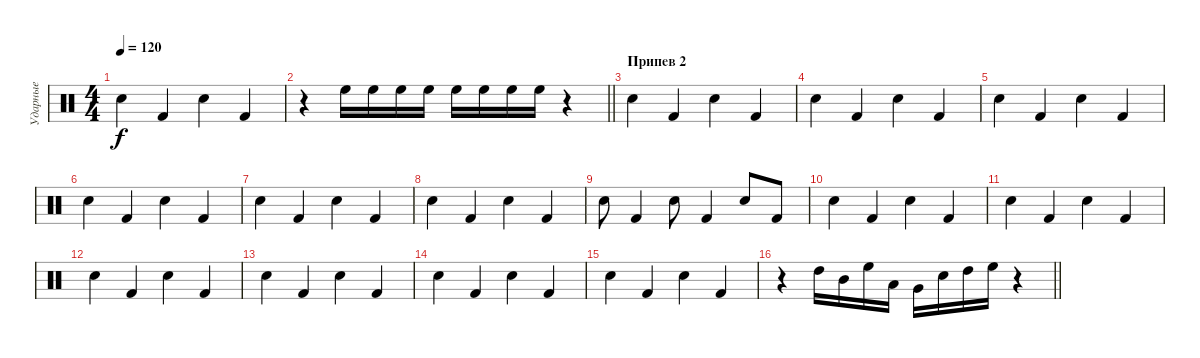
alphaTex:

\track ("Ударные" "Ударные") {instrument percussion}
\staff {score}
\articulation defaults
\ts (4 4)
\tempo 120
\clef neutral
\ks c "Electric Snare (hit)".4{dy f} "Kick (hit) 2".4 "Electric Snare (hit)".4 "Kick (hit) 2".4
|
\barLineRight lightlight
r.4 "High Floor Tom (hit)".16 "High Floor Tom (hit)".16 "High Floor Tom (hit)".16 "High Floor Tom (hit)".16 "High Floor Tom (hit)".16 "High Floor Tom (hit)".16 "High Floor Tom (hit)".16 "High Floor Tom (hit)".16 r.4 |
\section ("" "Припев 2")
"Electric Snare (hit)".4 "Kick (hit) 2".4 "Electric Snare (hit)".4 "Kick (hit) 2".4 |
"Electric Snare (hit)".4 "Kick (hit) 2".4 "Electric Snare (hit)".4 "Kick (hit) 2".4 |
"Electric Snare (hit)".4 "Kick (hit) 2".4 "Electric Snare (hit)".4 "Kick (hit) 2".4 |
"Electric Snare (hit)".4 "Kick (hit) 2".4 "Electric Snare (hit)".4 "Kick (hit) 2".4 |
"Electric Snare (hit)".4 "Kick (hit) 2".4 "Electric Snare (hit)".4 "Kick (hit) 2".4 |
"Electric Snare (hit)".4 "Kick (hit) 2".4 "Electric Snare (hit)".4 "Kick (hit) 2".4 |
"Electric Snare (hit)".8 "Kick (hit) 2".4 "Electric Snare (hit)".8 "Kick (hit) 2".4 "Electric Snare (hit)".8 "Kick (hit) 2".8 |
"Electric Snare (hit)".4 "Kick (hit) 2".4 "Electric Snare (hit)".4 "Kick (hit) 2".4 |
"Electric Snare (hit)".4 "Kick (hit) 2".4 "Electric Snare (hit)".4 "Kick (hit) 2".4 |
"Electric Snare (hit)".4 "Kick (hit) 2".4 "Electric Snare (hit)".4 "Kick (hit) 2".4 |
"Electric Snare (hit)".4 "Kick (hit) 2".4 "Electric Snare (hit)".4 "Kick (hit) 2".4 |
"Electric Snare (hit)".4 "Kick (hit) 2".4 "Electric Snare (hit)".4 "Kick (hit) 2".4 |
"Electric Snare (hit)".4 "Kick (hit) 2".4 "Electric Snare (hit)".4 "Kick (hit) 2".4 |
\barLineRight lightlight
r.4 "High Tom (hit)".16 "Mid Tom (hit)".16 "High Floor Tom (hit)".16 "Low Floor Tom (hit)".16 "Very Low Tom (hit)".16 "Electric Snare (hit)".16 "High Tom (hit)".16 "High Floor Tom (hit)".16 r.4
